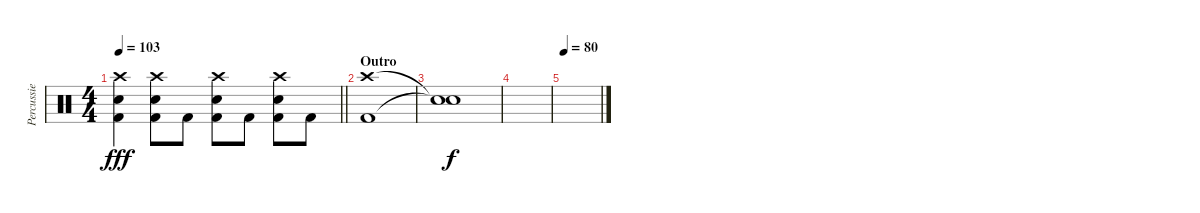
\track ("Percussie" "Percussie") {instrument percussion}
\staff {score}
\articulation defaults
\ts (4 4)
\tempo 103
\clef neutral
\barLineRight lightlight
\ks c
("Crash high (hit)" "Electric Snare (hit)" "Kick (hit) 2").4{dy fff} ("Crash high (hit)" "Electric Snare (hit)" "Kick (hit) 2").8 "Kick (hit) 2".8 ("Crash high (hit)" "Electric Snare (hit)" "Kick (hit) 2").8 "Kick (hit) 2".8 ("Crash high (hit)" "Electric Snare (hit)" "Kick (hit) 2").8 "Kick (hit) 2".8 |
\section ("" "Outro")
("Crash high (hit)" "Kick (hit) 2").1 |
("Snare (hit)"{t} "Snare (hit)"{t}).1{dy f} |
|
\tempo 80
